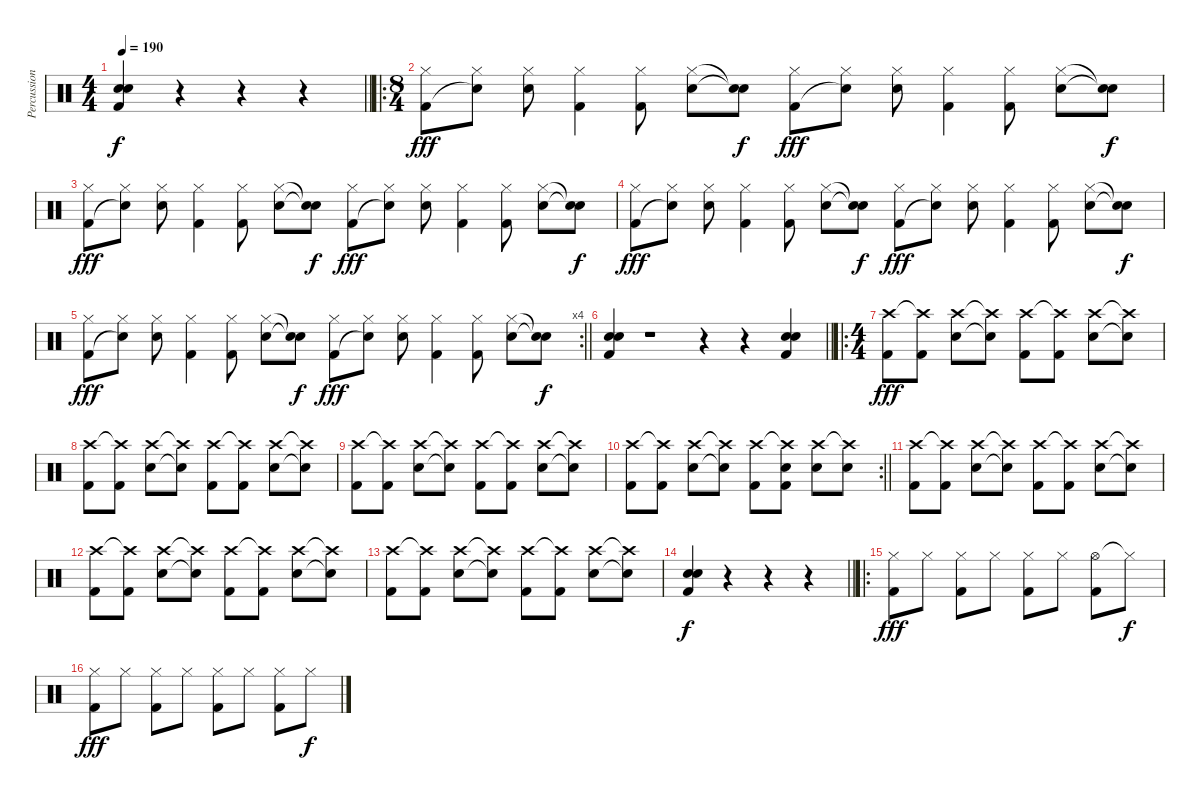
\track ("Percussion" "Percussion") {instrument percussion}
\staff {score}
\articulation defaults
\ts (4 4)
\tempo 190
\clef neutral
\barLineRight lightlight
\ks c
("Electric Snare (hit)" "Snare (hit) 2" "Kick (hit) 2").4{dy f} r.4 r.4 r.4 |
\ro
\ts (8 4)
\section ("" "")
("Hi-Hat (closed)" "Kick (hit) 2").8{dy fff} ("Hi-Hat (closed)" "Snare (hit)"{t}).8 ("Hi-Hat (closed)" "Snare (hit) 2").8 ("Hi-Hat (closed)" "Kick (hit) 2").4 ("Hi-Hat (closed)" "Kick (hit) 2").8 ("Hi-Hat (closed)" "Snare (hit) 2").8 ("Snare (hit)"{t} "Snare (hit)"{t}).8{dy f} ("Hi-Hat (closed)" "Kick (hit) 2").8{dy fff} ("Hi-Hat (closed)" "Snare (hit)"{t}).8 ("Hi-Hat (closed)" "Snare (hit) 2").8 ("Hi-Hat (closed)" "Kick (hit) 2").4 ("Hi-Hat (closed)" "Kick (hit) 2").8 ("Hi-Hat (closed)" "Snare (hit) 2").8 ("Snare (hit)"{t} "Snare (hit)"{t}).8{dy f} |
("Hi-Hat (closed)" "Kick (hit) 2").8{dy fff} ("Hi-Hat (closed)" "Snare (hit)"{t}).8 ("Hi-Hat (closed)" "Snare (hit) 2").8 ("Hi-Hat (closed)" "Kick (hit) 2").4 ("Hi-Hat (closed)" "Kick (hit) 2").8 ("Hi-Hat (closed)" "Snare (hit) 2").8 ("Snare (hit)"{t} "Snare (hit)"{t}).8{dy f} ("Hi-Hat (closed)" "Kick (hit) 2").8{dy fff} ("Hi-Hat (closed)" "Snare (hit)"{t}).8 ("Hi-Hat (closed)" "Snare (hit) 2").8 ("Hi-Hat (closed)" "Kick (hit) 2").4 ("Hi-Hat (closed)" "Kick (hit) 2").8 ("Hi-Hat (closed)" "Snare (hit) 2").8 ("Snare (hit)"{t} "Snare (hit)"{t}).8{dy f} |
("Hi-Hat (closed)" "Kick (hit) 2").8{dy fff} ("Hi-Hat (closed)" "Snare (hit)"{t}).8 ("Hi-Hat (closed)" "Snare (hit) 2").8 ("Hi-Hat (closed)" "Kick (hit) 2").4 ("Hi-Hat (closed)" "Kick (hit) 2").8 ("Hi-Hat (closed)" "Snare (hit) 2").8 ("Snare (hit)"{t} "Snare (hit)"{t}).8{dy f} ("Hi-Hat (closed)" "Kick (hit) 2").8{dy fff} ("Hi-Hat (closed)" "Snare (hit)"{t}).8 ("Hi-Hat (closed)" "Snare (hit) 2").8 ("Hi-Hat (closed)" "Kick (hit) 2").4 ("Hi-Hat (closed)" "Kick (hit) 2").8 ("Hi-Hat (closed)" "Snare (hit) 2").8 ("Snare (hit)"{t} "Snare (hit)"{t}).8{dy f} |
\rc 4
\barLineRight lightlight
("Hi-Hat (closed)" "Kick (hit) 2").8{dy fff} ("Hi-Hat (closed)" "Snare (hit)"{t}).8 ("Hi-Hat (closed)" "Snare (hit) 2").8 ("Hi-Hat (closed)" "Kick (hit) 2").4 ("Hi-Hat (closed)" "Kick (hit) 2").8 ("Hi-Hat (closed)" "Snare (hit) 2").8 ("Snare (hit)"{t} "Snare (hit)"{t}).8{dy f} ("Hi-Hat (closed)" "Kick (hit) 2").8{dy fff} ("Hi-Hat (closed)" "Snare (hit)"{t}).8 ("Hi-Hat (closed)" "Snare (hit) 2").8 ("Hi-Hat (closed)" "Kick (hit) 2").4 ("Hi-Hat (closed)" "Kick (hit) 2").8 ("Hi-Hat (closed)" "Snare (hit) 2").8 ("Snare (hit)"{t} "Snare (hit)"{t}).8{dy f} |
\section ("" "")
\barLineRight lightlight
("Electric Snare (hit)" "Snare (hit) 2" "Kick (hit) 2").4 r.1 r.4 r.4 ("Electric Snare (hit)" "Snare (hit) 2" "Kick (hit) 2").4 |
\ro
\ts (4 4)
\section ("" "")
("Crash high (hit)" "Kick (hit) 2").8{dy fff} ("Crash high (hit)"{t} "Kick (hit) 2").8 ("Crash high (hit)" "Snare (hit) 2").8 ("Crash high (hit)"{t} "Snare (hit)"{t}).8 ("Crash high (hit)" "Kick (hit) 2").8 ("Crash high (hit)"{t} "Kick (hit) 2").8 ("Crash high (hit)" "Snare (hit) 2").8 ("Crash high (hit)"{t} "Snare (hit)"{t}).8 |
("Crash high (hit)" "Kick (hit) 2").8 ("Crash high (hit)"{t} "Kick (hit) 2").8 ("Crash high (hit)" "Snare (hit) 2").8 ("Crash high (hit)"{t} "Snare (hit)"{t}).8 ("Crash high (hit)" "Kick (hit) 2").8 ("Crash high (hit)"{t} "Kick (hit) 2").8 ("Crash high (hit)" "Snare (hit) 2").8 ("Crash high (hit)"{t} "Snare (hit)"{t}).8 |
("Crash high (hit)" "Kick (hit) 2").8 ("Crash high (hit)"{t} "Kick (hit) 2").8 ("Crash high (hit)" "Snare (hit) 2").8 ("Crash high (hit)"{t} "Snare (hit)"{t}).8 ("Crash high (hit)" "Kick (hit) 2").8 ("Crash high (hit)"{t} "Kick (hit) 2").8 ("Crash high (hit)" "Snare (hit) 2").8 ("Crash high (hit)"{t} "Snare (hit)"{t}).8 |
\rc 2
\barLineRight lightlight
("Crash high (hit)" "Kick (hit) 2").8 ("Crash high (hit)"{t} "Kick (hit) 2").8 ("Crash high (hit)" "Snare (hit) 2").8 ("Crash high (hit)"{t} "Snare (hit)"{t}).8 ("Crash high (hit)" "Kick (hit) 2").8 ("Crash high (hit)"{t} "Snare (hit) 2" "Kick (hit) 2").8 ("Crash high (hit)" "Snare (hit) 2").8 ("Crash high (hit)"{t} "Snare (hit) 2").8 |
\section ("" "")
("Crash high (hit)" "Kick (hit) 2").8 ("Crash high (hit)"{t} "Kick (hit) 2").8 ("Crash high (hit)" "Snare (hit) 2").8 ("Crash high (hit)"{t} "Snare (hit)"{t}).8 ("Crash high (hit)" "Kick (hit) 2").8 ("Crash high (hit)"{t} "Kick (hit) 2").8 ("Crash high (hit)" "Snare (hit) 2").8 ("Crash high (hit)"{t} "Snare (hit)"{t}).8 |
("Crash high (hit)" "Kick (hit) 2").8 ("Crash high (hit)"{t} "Kick (hit) 2").8 ("Crash high (hit)" "Snare (hit) 2").8 ("Crash high (hit)"{t} "Snare (hit)"{t}).8 ("Crash high (hit)" "Kick (hit) 2").8 ("Crash high (hit)"{t} "Kick (hit) 2").8 ("Crash high (hit)" "Snare (hit) 2").8 ("Crash high (hit)"{t} "Snare (hit)"{t}).8 |
("Crash high (hit)" "Kick (hit) 2").8 ("Crash high (hit)"{t} "Kick (hit) 2").8 ("Crash high (hit)" "Snare (hit) 2").8 ("Crash high (hit)"{t} "Snare (hit)"{t}).8 ("Crash high (hit)" "Kick (hit) 2").8 ("Crash high (hit)"{t} "Kick (hit) 2").8 ("Crash high (hit)" "Snare (hit) 2").8 ("Crash high (hit)"{t} "Snare (hit)"{t}).8 |
\barLineRight lightlight
("Electric Snare (hit)" "Snare (hit) 2" "Kick (hit) 2").4{dy f} r.4 r.4 r.4 |
\ro
\section ("" "")
("Hi-Hat (closed)" "Kick (hit) 2").8{dy fff} "Hi-Hat (closed)".8 ("Hi-Hat (closed)" "Kick (hit) 2").8 "Hi-Hat (closed)".8 ("Hi-Hat (closed)" "Kick (hit) 2").8 "Hi-Hat (closed)".8 ("Hi-Hat (open)" "Kick (hit) 2").8 "Hi-Hat (closed)"{t}.8{dy f} |
("Hi-Hat (closed)" "Kick (hit) 2").8{dy fff} "Hi-Hat (closed)".8 ("Hi-Hat (closed)" "Kick (hit) 2").8 "Hi-Hat (closed)".8 ("Hi-Hat (closed)" "Kick (hit) 2").8 "Hi-Hat (closed)".8 ("Hi-Hat (closed)" "Kick (hit) 2").8 "Hi-Hat (closed)".8{dy f}
